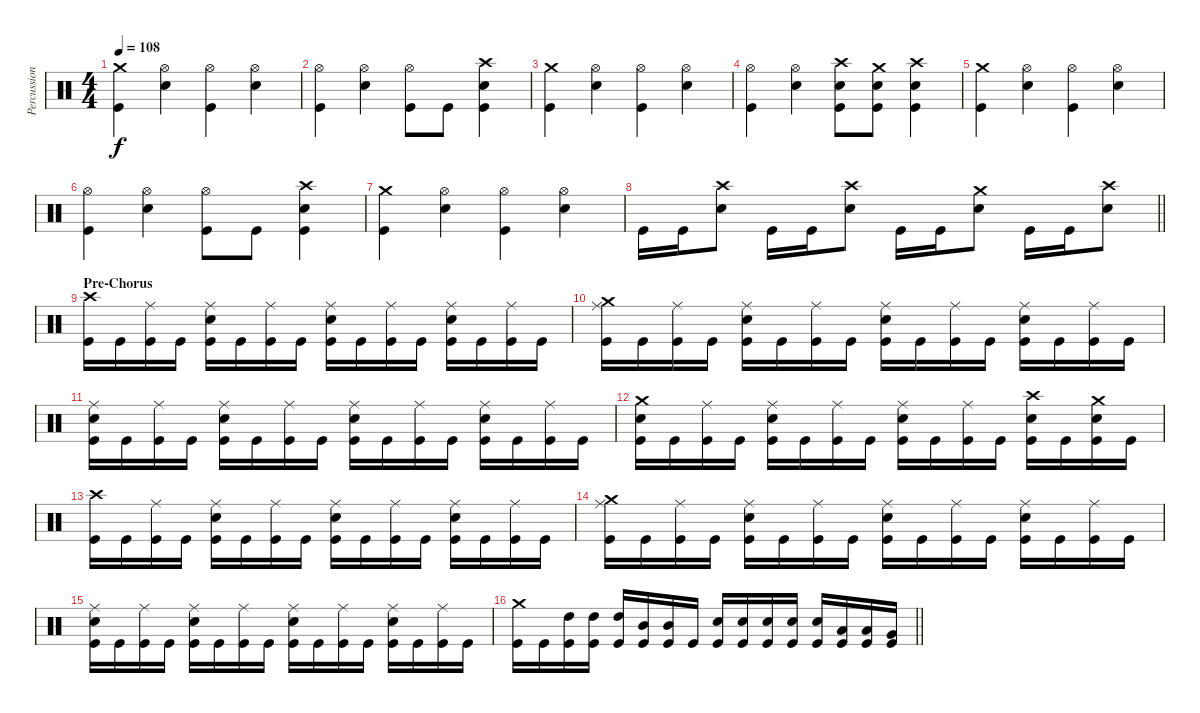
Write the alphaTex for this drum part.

\track ("Percussions" "Percussion") {instrument percussion}
\staff {score}
\articulation defaults
\ts (4 4)
\tempo 108
\clef neutral
\ks c
("Crash medium (hit)" "Kick (hit)").4{dy f} ("Hi-Hat (open)" "Electric Snare (hit)").4 ("Hi-Hat (open)" "Kick (hit)").4 ("Hi-Hat (open)" "Electric Snare (hit)").4 |
("Hi-Hat (open)" "Kick (hit)").4 ("Hi-Hat (open)" "Electric Snare (hit)").4 ("Hi-Hat (open)" "Kick (hit)").8 "Kick (hit)".8 ("Crash high (hit)" "Electric Snare (hit)" "Kick (hit)").4 |
("Crash medium (hit)" "Kick (hit)").4 ("Hi-Hat (open)" "Electric Snare (hit)").4 ("Hi-Hat (open)" "Kick (hit)").4 ("Hi-Hat (open)" "Electric Snare (hit)").4 |
("Hi-Hat (open)" "Kick (hit)").4 ("Hi-Hat (open)" "Electric Snare (hit)").4 ("Crash high (hit)" "Electric Snare (hit)" "Kick (hit)").8 ("Crash medium (hit)" "Electric Snare (hit)" "Kick (hit)").8 ("Crash high (hit)" "Electric Snare (hit)" "Kick (hit)").4 |
("Crash medium (hit)" "Kick (hit)").4 ("Hi-Hat (open)" "Electric Snare (hit)").4 ("Hi-Hat (open)" "Kick (hit)").4 ("Hi-Hat (open)" "Electric Snare (hit)").4 |
("Hi-Hat (open)" "Kick (hit)").4 ("Hi-Hat (open)" "Electric Snare (hit)").4 ("Hi-Hat (open)" "Kick (hit)").8 "Kick (hit)".8 ("Crash high (hit)" "Electric Snare (hit)" "Kick (hit)").4 |
("Crash medium (hit)" "Kick (hit)").4 ("Hi-Hat (open)" "Electric Snare (hit)").4 ("Hi-Hat (open)" "Kick (hit)").4 ("Hi-Hat (open)" "Electric Snare (hit)").4 |
\barLineRight lightlight "Kick (hit)".16 "Kick (hit)".16
("Crash high (hit)" "Electric Snare (hit)").8 "Kick (hit)".16 "Kick (hit)".16 ("Crash high (hit)" "Electric Snare (hit)").8 "Kick (hit)".16 "Kick (hit)".16 ("Crash medium (hit)" "Electric Snare (hit)").8 "Kick (hit)".16 "Kick (hit)".16 ("Crash high (hit)" "Electric Snare (hit)").8 |
\section ("" "Pre-Chorus")
("Crash high (hit)" "Kick (hit)").16 "Kick (hit)".16 ("Ride (middle)" "Kick (hit)").16 "Kick (hit)".16 ("Ride (middle)" "Electric Snare (hit)" "Kick (hit)").16 "Kick (hit)".16 ("Ride (middle)" "Kick (hit)").16 "Kick (hit)".16 ("Ride (middle)" "Electric Snare (hit)" "Kick (hit)").16 "Kick (hit)".16 ("Ride (middle)" "Kick (hit)").16 "Kick (hit)".16 ("Ride (middle)" "Electric Snare (hit)" "Kick (hit)").16 "Kick (hit)".16 ("Ride (middle)" "Kick (hit)").16 "Kick (hit)".16 |
("Crash medium (hit)" "Ride (middle)" "Kick (hit)").16 "Kick (hit)".16 ("Ride (middle)" "Kick (hit)").16 "Kick (hit)".16 ("Ride (middle)" "Electric Snare (hit)" "Kick (hit)").16 "Kick (hit)".16 ("Ride (middle)" "Kick (hit)").16 "Kick (hit)".16 ("Ride (middle)" "Electric Snare (hit)" "Kick (hit)").16 "Kick (hit)".16 ("Ride (middle)" "Kick (hit)").16 "Kick (hit)".16 ("Ride (middle)" "Electric Snare (hit)" "Kick (hit)").16 "Kick (hit)".16 ("Ride (middle)" "Kick (hit)").16 "Kick (hit)".16 |
("Ride (middle)" "Electric Snare (hit)" "Kick (hit)").16 "Kick (hit)".16 ("Ride (middle)" "Kick (hit)").16 "Kick (hit)".16 ("Ride (middle)" "Electric Snare (hit)" "Kick (hit)").16 "Kick (hit)".16 ("Ride (middle)" "Kick (hit)").16 "Kick (hit)".16 ("Ride (middle)" "Electric Snare (hit)" "Kick (hit)").16 "Kick (hit)".16 ("Ride (middle)" "Kick (hit)").16 "Kick (hit)".16 ("Ride (middle)" "Electric Snare (hit)" "Kick (hit)").16 "Kick (hit)".16 ("Ride (middle)" "Kick (hit)").16 "Kick (hit)".16 |
("Crash medium (hit)" "Electric Snare (hit)" "Kick (hit)").16 "Kick (hit)".16 ("Ride (middle)" "Kick (hit)").16 "Kick (hit)".16 ("Ride (middle)" "Electric Snare (hit)" "Kick (hit)").16 "Kick (hit)".16 ("Ride (middle)" "Kick (hit)").16 "Kick (hit)".16 ("Ride (middle)" "Electric Snare (hit)" "Kick (hit)").16 "Kick (hit)".16 ("Ride (middle)" "Kick (hit)").16 "Kick (hit)".16 ("Crash high (hit)" "Electric Snare (hit)" "Kick (hit)").16 "Kick (hit)".16 ("Crash medium (hit)" "Electric Snare (hit)" "Kick (hit)").16 "Kick (hit)".16 |
("Crash high (hit)" "Kick (hit)").16 "Kick (hit)".16 ("Ride (middle)" "Kick (hit)").16 "Kick (hit)".16 ("Ride (middle)" "Electric Snare (hit)" "Kick (hit)").16 "Kick (hit)".16 ("Ride (middle)" "Kick (hit)").16 "Kick (hit)".16 ("Ride (middle)" "Electric Snare (hit)" "Kick (hit)").16 "Kick (hit)".16 ("Ride (middle)" "Kick (hit)").16 "Kick (hit)".16 ("Ride (middle)" "Electric Snare (hit)" "Kick (hit)").16 "Kick (hit)".16 ("Ride (middle)" "Kick (hit)").16 "Kick (hit)".16 |
("Crash medium (hit)" "Ride (middle)" "Kick (hit)").16 "Kick (hit)".16 ("Ride (middle)" "Kick (hit)").16 "Kick (hit)".16 ("Ride (middle)" "Electric Snare (hit)" "Kick (hit)").16 "Kick (hit)".16 ("Ride (middle)" "Kick (hit)").16 "Kick (hit)".16 ("Ride (middle)" "Electric Snare (hit)" "Kick (hit)").16 "Kick (hit)".16 ("Ride (middle)" "Kick (hit)").16 "Kick (hit)".16 ("Ride (middle)" "Electric Snare (hit)" "Kick (hit)").16 "Kick (hit)".16 ("Ride (middle)" "Kick (hit)").16 "Kick (hit)".16 |
("Ride (middle)" "Electric Snare (hit)" "Kick (hit)").16 "Kick (hit)".16 ("Ride (middle)" "Kick (hit)").16 "Kick (hit)".16 ("Ride (middle)" "Electric Snare (hit)" "Kick (hit)").16 "Kick (hit)".16 ("Ride (middle)" "Kick (hit)").16 "Kick (hit)".16 ("Ride (middle)" "Electric Snare (hit)" "Kick (hit)").16 "Kick (hit)".16 ("Ride (middle)" "Kick (hit)").16 "Kick (hit)".16 ("Ride (middle)" "Electric Snare (hit)" "Kick (hit)").16 "Kick (hit)".16 ("Ride (middle)" "Kick (hit)").16 "Kick (hit)".16 |
\barLineRight lightlight
("Crash medium (hit)" "Kick (hit)").16 "Kick (hit)".16 ("High Tom (hit)" "Kick (hit)").16 ("High Tom (hit)" "Kick (hit)").16 ("High Tom (hit)" "Kick (hit)").16 ("Mid Tom (hit)" "Kick (hit)").16 ("Mid Tom (hit)" "Kick (hit)").16 "Kick (hit)".16 ("Electric Snare (hit)" "Kick (hit)").16 ("Electric Snare (hit)" "Kick (hit)").16 ("Electric Snare (hit)" "Kick (hit)").16 ("Electric Snare (hit)" "Kick (hit)").16 ("Electric Snare (hit)" "Kick (hit)").16 ("Low Tom (hit)" "Kick (hit)").16 ("Low Tom (hit)" "Kick (hit)").16 ("Very Low Tom (hit)" "Kick (hit)").16
